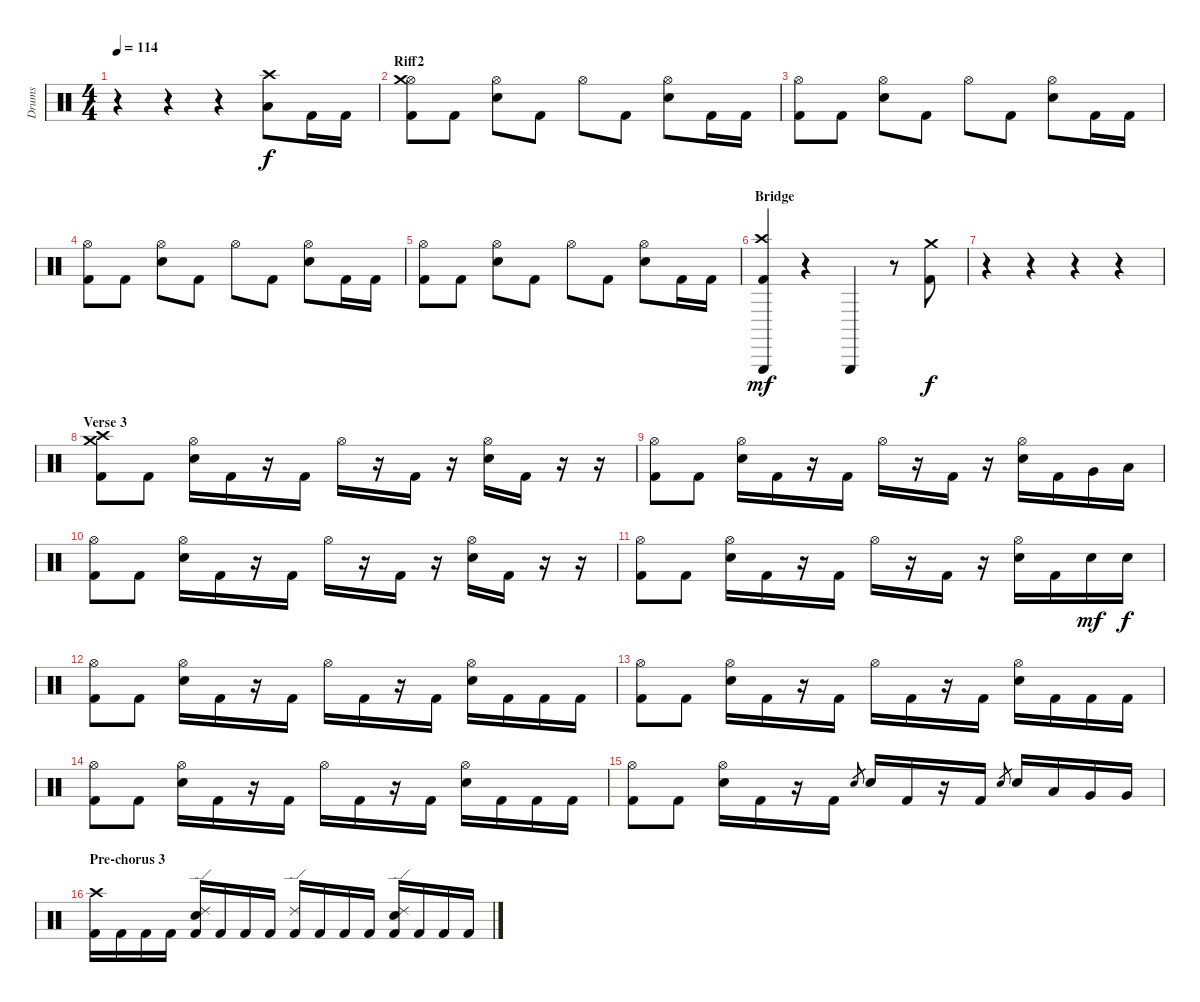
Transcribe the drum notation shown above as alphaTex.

\track ("Drums" "Drums") {instrument percussion}
\staff {score}
\articulation defaults
\ts (4 4)
\tempo 114
\clef neutral
\ks c
r.4{dy f} r.4 r.4 ("Low Floor Tom (hit)" "Crash high (hit)").8 "Kick (hit) 2".16 "Kick (hit) 2".16 |
\section ("" "Riff2")
("Kick (hit) 2" "Hi-Hat (open)" "Crash medium (hit)").8 "Kick (hit) 2".8 ("Electric Snare (hit)" "Hi-Hat (open)").8 "Kick (hit) 2".8 "Hi-Hat (open)".8 "Kick (hit) 2".8 ("Electric Snare (hit)" "Hi-Hat (open)").8 "Kick (hit) 2".16 "Kick (hit) 2".16 |
("Kick (hit) 2" "Hi-Hat (open)").8 "Kick (hit) 2".8 ("Electric Snare (hit)" "Hi-Hat (open)").8 "Kick (hit) 2".8 "Hi-Hat (open)".8 "Kick (hit) 2".8 ("Electric Snare (hit)" "Hi-Hat (open)").8 "Kick (hit) 2".16 "Kick (hit) 2".16 |
("Kick (hit) 2" "Hi-Hat (open)").8 "Kick (hit) 2".8 ("Electric Snare (hit)" "Hi-Hat (open)").8 "Kick (hit) 2".8 "Hi-Hat (open)".8 "Kick (hit) 2".8 ("Electric Snare (hit)" "Hi-Hat (open)").8 "Kick (hit) 2".16 "Kick (hit) 2".16 |
("Kick (hit) 2" "Hi-Hat (open)").8 "Kick (hit) 2".8 ("Electric Snare (hit)" "Hi-Hat (open)").8 "Kick (hit) 2".8 "Hi-Hat (open)".8 "Kick (hit) 2".8 ("Electric Snare (hit)" "Hi-Hat (open)").8 "Kick (hit) 2".16 "Kick (hit) 2".16 |
\section ("" "Bridge")
("Kick (hit) 2" "Triangle (hit)" "Crash high (hit)").4{dy mf} r.4 "Triangle (hit)".4 r.8 ("Kick (hit) 2" "Crash medium (hit)").8{dy f} |
r.4 r.4 r.4 r.4 |
\section ("" "Verse 3")
("Kick (hit) 2" "Crash high (hit)" "Crash medium (hit)").8 "Kick (hit) 2".8 ("Electric Snare (hit)" "Hi-Hat (open)").16 "Kick (hit) 2".16 r.16 "Kick (hit) 2".16 "Hi-Hat (open)".16 r.16 "Kick (hit) 2".16 r.16 ("Electric Snare (hit)" "Hi-Hat (open)").16 "Kick (hit) 2".16 r.16 r.16 |
("Kick (hit) 2" "Hi-Hat (open)").8 "Kick (hit) 2".8 ("Electric Snare (hit)" "Hi-Hat (open)").16 "Kick (hit) 2".16 r.16 "Kick (hit) 2".16 "Hi-Hat (open)".16 r.16 "Kick (hit) 2".16 r.16 ("Electric Snare (hit)" "Hi-Hat (open)").16 "Kick (hit) 2".16 "Very Low Tom (hit)".16 "Low Tom (hit)".16 |
("Kick (hit) 2" "Hi-Hat (open)").8 "Kick (hit) 2".8 ("Electric Snare (hit)" "Hi-Hat (open)").16 "Kick (hit) 2".16 r.16 "Kick (hit) 2".16 "Hi-Hat (open)".16 r.16 "Kick (hit) 2".16 r.16 ("Electric Snare (hit)" "Hi-Hat (open)").16 "Kick (hit) 2".16 r.16 r.16 |
("Kick (hit) 2" "Hi-Hat (open)").8 "Kick (hit) 2".8 ("Electric Snare (hit)" "Hi-Hat (open)").16 "Kick (hit) 2".16 r.16 "Kick (hit) 2".16 "Hi-Hat (open)".16 r.16 "Kick (hit) 2".16 r.16 ("Electric Snare (hit)" "Hi-Hat (open)").16 "Kick (hit) 2".16 "Electric Snare (hit)".16{dy mf} "Electric Snare (hit)".16{dy f} |
("Kick (hit) 2" "Hi-Hat (open)").8 "Kick (hit) 2".8 ("Electric Snare (hit)" "Hi-Hat (open)").16 "Kick (hit) 2".16 r.16 "Kick (hit) 2".16 "Hi-Hat (open)".16 "Kick (hit) 2".16 r.16 "Kick (hit) 2".16 ("Electric Snare (hit)" "Hi-Hat (open)").16 "Kick (hit) 2".16 "Kick (hit) 2".16 "Kick (hit) 2".16 |
("Kick (hit) 2" "Hi-Hat (open)").8 "Kick (hit) 2".8 ("Electric Snare (hit)" "Hi-Hat (open)").16 "Kick (hit) 2".16 r.16 "Kick (hit) 2".16 "Hi-Hat (open)".16 "Kick (hit) 2".16 r.16 "Kick (hit) 2".16 ("Electric Snare (hit)" "Hi-Hat (open)").16 "Kick (hit) 2".16 "Kick (hit) 2".16 "Kick (hit) 2".16 |
("Kick (hit) 2" "Hi-Hat (open)").8 "Kick (hit) 2".8 ("Electric Snare (hit)" "Hi-Hat (open)").16 "Kick (hit) 2".16 r.16 "Kick (hit) 2".16 "Hi-Hat (open)".16 "Kick (hit) 2".16 r.16 "Kick (hit) 2".16 ("Electric Snare (hit)" "Hi-Hat (open)").16 "Kick (hit) 2".16 "Kick (hit) 2".16 "Kick (hit) 2".16 |
("Kick (hit) 2" "Hi-Hat (open)").8 "Kick (hit) 2".8 ("Electric Snare (hit)" "Hi-Hat (open)").16 "Kick (hit) 2".16 r.16 "Kick (hit) 2".16 "Electric Snare (hit)".8{gr} "Electric Snare (hit)".16 "Kick (hit) 2".16 r.16 "Kick (hit) 2".16 "Electric Snare (hit)".8{gr} "Electric Snare (hit)".16 "Low Tom (hit)".16 "Very Low Tom (hit)".16 "Very Low Tom (hit)".16 |
\section ("" "Pre-chorus 3")
("Kick (hit) 2" "Crash high (hit)").16 "Kick (hit) 2".16 "Kick (hit) 2".16 "Kick (hit) 2".16 ("Kick (hit) 2" "Electric Snare (hit)" "Ride (edge) 2").16 "Kick (hit) 2".16 "Kick (hit) 2".16 "Kick (hit) 2".16 ("Kick (hit) 2" "Ride (edge) 2").16 "Kick (hit) 2".16 "Kick (hit) 2".16 "Kick (hit) 2".16 ("Kick (hit) 2" "Electric Snare (hit)" "Ride (edge) 2").16 "Kick (hit) 2".16 "Kick (hit) 2".16 "Kick (hit) 2".16
